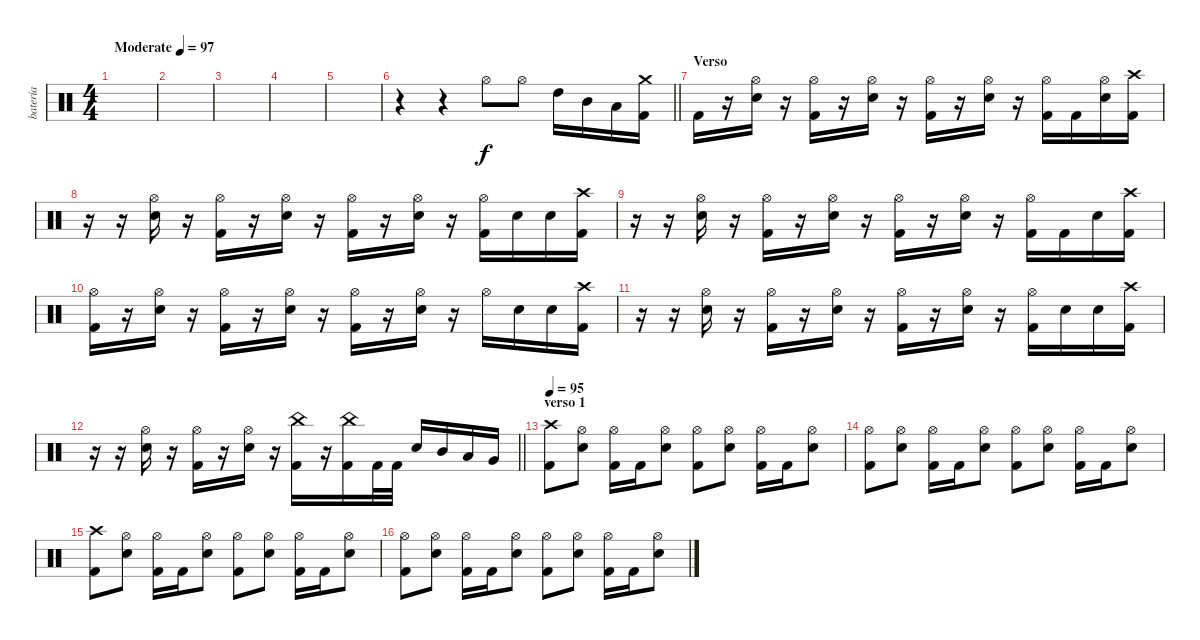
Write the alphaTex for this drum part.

\track ("batería" "batería") {instrument percussion}
\staff {score}
\articulation defaults
\ts (4 4)
\tempo (97 "Moderate")
\clef neutral
\ks c
|
|
|
|
|
\barLineRight lightlight
r.4 r.4 "Hi-Hat (open)".8 "Hi-Hat (open)".8 "High Tom (hit)".16 "Mid Tom (hit)".16 "Low Tom (hit)".16 ("Crash medium (hit)" "Kick (hit) 2").16 |
\section ("" "Verso")
"Kick (hit) 2".16 r.16 ("Hi-Hat (open)" "Electric Snare (hit)").16 r.16 ("Hi-Hat (open)" "Kick (hit) 2").16 r.16 ("Hi-Hat (open)" "Electric Snare (hit)").16 r.16 ("Hi-Hat (open)" "Kick (hit) 2").16 r.16 ("Hi-Hat (open)" "Electric Snare (hit)").16 r.16 ("Hi-Hat (open)" "Kick (hit) 2").16 "Kick (hit) 2".16 ("Hi-Hat (open)" "Electric Snare (hit)").16 ("Crash high (hit)" "Kick (hit) 2").16 |
r.16 r.16 ("Hi-Hat (open)" "Electric Snare (hit)").16 r.16 ("Hi-Hat (open)" "Kick (hit) 2").16 r.16 ("Hi-Hat (open)" "Electric Snare (hit)").16 r.16 ("Hi-Hat (open)" "Kick (hit) 2").16 r.16 ("Hi-Hat (open)" "Electric Snare (hit)").16 r.16 ("Hi-Hat (open)" "Kick (hit) 2").16 "Electric Snare (hit)".16 "Electric Snare (hit)".16 ("Crash high (hit)" "Kick (hit) 2").16 |
r.16 r.16 ("Hi-Hat (open)" "Electric Snare (hit)").16 r.16 ("Hi-Hat (open)" "Kick (hit) 2").16 r.16 ("Hi-Hat (open)" "Electric Snare (hit)").16 r.16 ("Hi-Hat (open)" "Kick (hit) 2").16 r.16 ("Hi-Hat (open)" "Electric Snare (hit)").16 r.16 ("Hi-Hat (open)" "Kick (hit) 2").16 "Kick (hit) 2".16 "Electric Snare (hit)".16 ("Crash high (hit)" "Kick (hit) 2").16 |
("Hi-Hat (open)" "Kick (hit) 2").16 r.16 ("Hi-Hat (open)" "Electric Snare (hit)").16 r.16 ("Hi-Hat (open)" "Kick (hit) 2").16 r.16 ("Hi-Hat (open)" "Electric Snare (hit)").16 r.16 ("Hi-Hat (open)" "Kick (hit) 2").16 r.16 ("Hi-Hat (open)" "Electric Snare (hit)").16 r.16 "Hi-Hat (open)".16 "Electric Snare (hit)".16 "Electric Snare (hit)".16 ("Crash high (hit)" "Kick (hit) 2").16 |
r.16 r.16 ("Hi-Hat (open)" "Electric Snare (hit)").16 r.16 ("Hi-Hat (open)" "Kick (hit) 2").16 r.16 ("Hi-Hat (open)" "Electric Snare (hit)").16 r.16 ("Hi-Hat (open)" "Kick (hit) 2").16 r.16 ("Hi-Hat (open)" "Electric Snare (hit)").16 r.16 ("Hi-Hat (open)" "Kick (hit) 2").16 "Electric Snare (hit)".16 "Electric Snare (hit)".16 ("Crash high (hit)" "Kick (hit) 2").16 |
\barLineRight lightlight
r.16 r.16 ("Hi-Hat (open)" "Electric Snare (hit)").16 r.16 ("Hi-Hat (open)" "Kick (hit) 2").16 r.16 ("Hi-Hat (open)" "Electric Snare (hit)").16 r.16 ("China (hit)" "Kick (hit) 2").16 r.16 ("China (hit)" "Kick (hit) 2").16 "Kick (hit) 2".32 "Kick (hit) 2".32 "Electric Snare (hit)".16 "Mid Tom (hit)".16 "Low Tom (hit)".16 "Very Low Tom (hit)".16 |
\section ("" "verso 1")
\tempo 95
("Crash high (hit)" "Kick (hit) 2").8 ("Hi-Hat (open)" "Electric Snare (hit)").8 ("Hi-Hat (open)" "Kick (hit) 2").16 "Kick (hit) 2".16 ("Hi-Hat (open)" "Electric Snare (hit)").8 ("Hi-Hat (open)" "Kick (hit) 2").8 ("Hi-Hat (open)" "Electric Snare (hit)").8 ("Hi-Hat (open)" "Kick (hit) 2").16 "Kick (hit) 2".16 ("Hi-Hat (open)" "Electric Snare (hit)").8 |
("Hi-Hat (open)" "Kick (hit) 2").8 ("Hi-Hat (open)" "Electric Snare (hit)").8 ("Hi-Hat (open)" "Kick (hit) 2").16 "Kick (hit) 2".16 ("Hi-Hat (open)" "Electric Snare (hit)").8 ("Hi-Hat (open)" "Kick (hit) 2").8 ("Hi-Hat (open)" "Electric Snare (hit)").8 ("Hi-Hat (open)" "Kick (hit) 2").16 "Kick (hit) 2".16 ("Hi-Hat (open)" "Electric Snare (hit)").8 |
("Crash high (hit)" "Kick (hit) 2").8 ("Hi-Hat (open)" "Electric Snare (hit)").8 ("Hi-Hat (open)" "Kick (hit) 2").16 "Kick (hit) 2".16 ("Hi-Hat (open)" "Electric Snare (hit)").8 ("Hi-Hat (open)" "Kick (hit) 2").8 ("Hi-Hat (open)" "Electric Snare (hit)").8 ("Hi-Hat (open)" "Kick (hit) 2").16 "Kick (hit) 2".16 ("Hi-Hat (open)" "Electric Snare (hit)").8 |
("Hi-Hat (open)" "Kick (hit) 2").8 ("Hi-Hat (open)" "Electric Snare (hit)").8 ("Hi-Hat (open)" "Kick (hit) 2").16 "Kick (hit) 2".16 ("Hi-Hat (open)" "Electric Snare (hit)").8 ("Hi-Hat (open)" "Kick (hit) 2").8 ("Hi-Hat (open)" "Electric Snare (hit)").8 ("Hi-Hat (open)" "Kick (hit) 2").16 "Kick (hit) 2".16 ("Hi-Hat (open)" "Electric Snare (hit)").8
